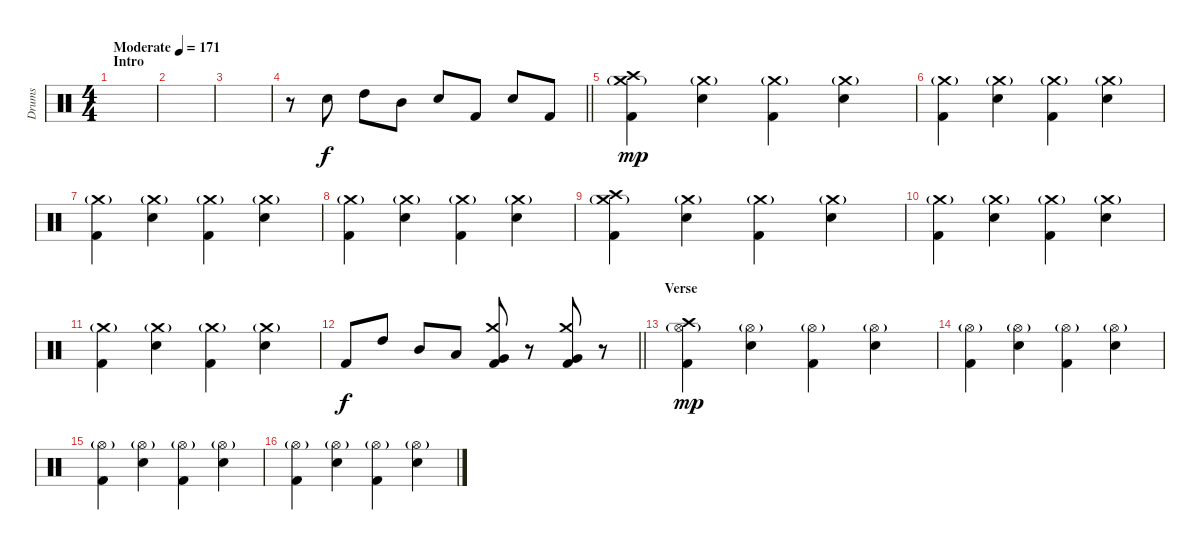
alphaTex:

\track ("Drums" "Drums") {instrument percussion}
\staff {score}
\articulation defaults
\ts (4 4)
\section ("" "Intro")
\tempo (171 "Moderate")
\clef neutral
\ks c
|
|
|
\barLineRight lightlight
r.8 "Snare (hit) 2".8 "High Tom (hit)".8 "Mid Tom (hit)".8 "Snare (hit) 2".8 "Kick (hit) 2".8 "Snare (hit) 2".8 "Kick (hit) 2".8 |
\section ("" "")
("Kick (hit) 2" "Crash medium (hit)"{g} "Crash high (hit)").4{dy mp} ("Snare (hit) 2" "Crash medium (hit)"{g}).4 ("Kick (hit) 2" "Crash medium (hit)"{g}).4 ("Snare (hit) 2" "Crash medium (hit)"{g}).4 |
("Kick (hit) 2" "Crash medium (hit)"{g}).4 ("Snare (hit) 2" "Crash medium (hit)"{g}).4 ("Kick (hit) 2" "Crash medium (hit)"{g}).4 ("Snare (hit) 2" "Crash medium (hit)"{g}).4 |
("Kick (hit) 2" "Crash medium (hit)"{g}).4 ("Snare (hit) 2" "Crash medium (hit)"{g}).4 ("Kick (hit) 2" "Crash medium (hit)"{g}).4 ("Snare (hit) 2" "Crash medium (hit)"{g}).4 |
("Kick (hit) 2" "Crash medium (hit)"{g}).4 ("Snare (hit) 2" "Crash medium (hit)"{g}).4 ("Kick (hit) 2" "Crash medium (hit)"{g}).4 ("Snare (hit) 2" "Crash medium (hit)"{g}).4 |
("Kick (hit) 2" "Crash medium (hit)"{g} "Crash high (hit)").4 ("Snare (hit) 2" "Crash medium (hit)"{g}).4 ("Kick (hit) 2" "Crash medium (hit)"{g}).4 ("Snare (hit) 2" "Crash medium (hit)"{g}).4 |
("Kick (hit) 2" "Crash medium (hit)"{g}).4 ("Snare (hit) 2" "Crash medium (hit)"{g}).4 ("Kick (hit) 2" "Crash medium (hit)"{g}).4 ("Snare (hit) 2" "Crash medium (hit)"{g}).4 |
("Kick (hit) 2" "Crash medium (hit)"{g}).4 ("Snare (hit) 2" "Crash medium (hit)"{g}).4 ("Kick (hit) 2" "Crash medium (hit)"{g}).4 ("Snare (hit) 2" "Crash medium (hit)"{g}).4 |
\barLineRight lightlight "Kick (hit) 2".8{dy f} "High Tom (hit)".8 "Mid Tom (hit)".8 "Low Tom (hit)".8
("Kick (hit) 2" "Very Low Tom (hit)" "Crash medium (hit)").8 r.8 ("Kick (hit) 2" "Very Low Tom (hit)" "Crash medium (hit)").8 r.8 |
\section ("" "Verse")
("Kick (hit) 2" "Hi-Hat (open)"{g} "Crash high (hit)").4{dy mp} ("Snare (hit) 2" "Hi-Hat (open)"{g}).4 ("Kick (hit) 2" "Hi-Hat (open)"{g}).4 ("Snare (hit) 2" "Hi-Hat (open)"{g}).4 |
("Kick (hit) 2" "Hi-Hat (open)"{g}).4 ("Snare (hit) 2" "Hi-Hat (open)"{g}).4 ("Kick (hit) 2" "Hi-Hat (open)"{g}).4 ("Snare (hit) 2" "Hi-Hat (open)"{g}).4 |
("Kick (hit) 2" "Hi-Hat (open)"{g}).4 ("Snare (hit) 2" "Hi-Hat (open)"{g}).4 ("Kick (hit) 2" "Hi-Hat (open)"{g}).4 ("Snare (hit) 2" "Hi-Hat (open)"{g}).4 |
("Kick (hit) 2" "Hi-Hat (open)"{g}).4 ("Snare (hit) 2" "Hi-Hat (open)"{g}).4 ("Kick (hit) 2" "Hi-Hat (open)"{g}).4 ("Snare (hit) 2" "Hi-Hat (open)"{g}).4
